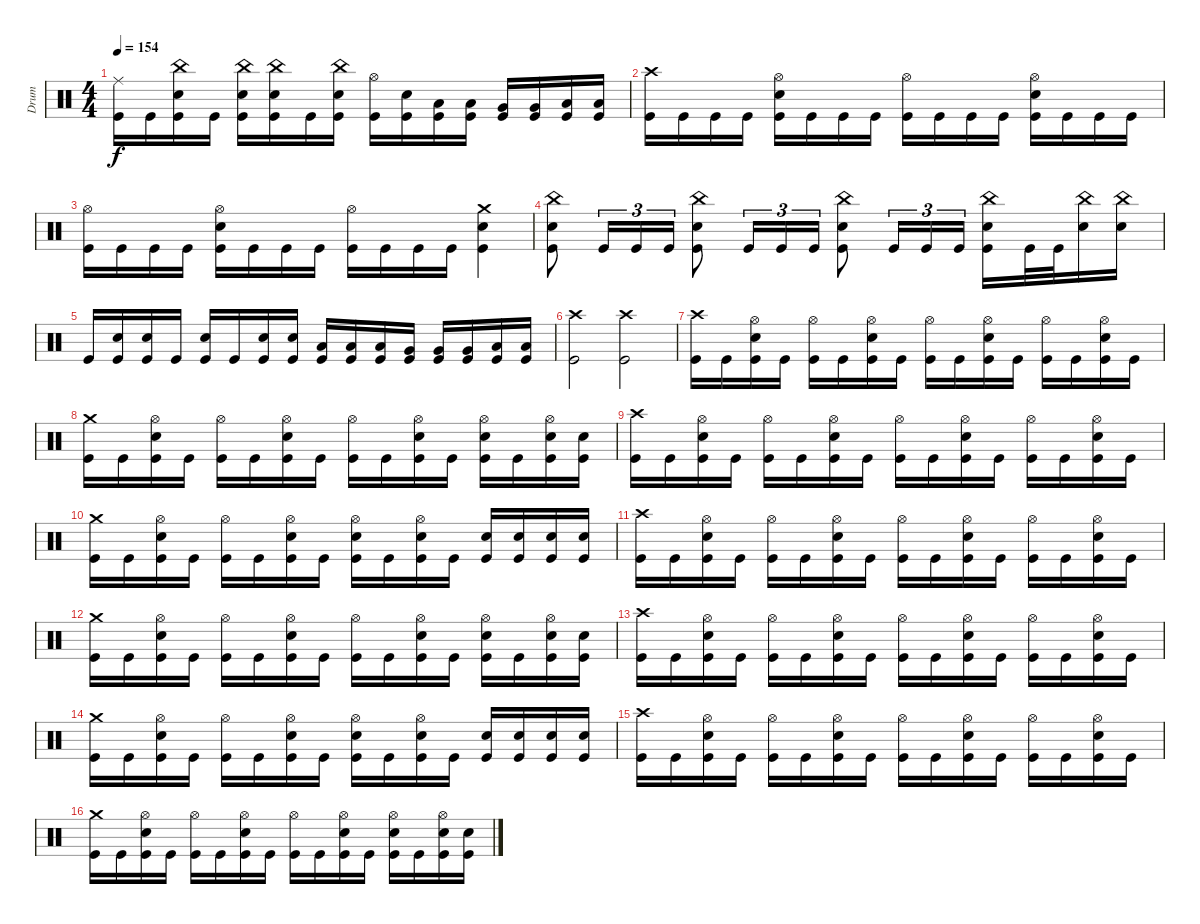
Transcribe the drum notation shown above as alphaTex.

\track ("Drum" "Drum") {instrument percussion}
\staff {score}
\articulation defaults
\ts (4 4)
\tempo 154
\clef neutral
\ks c
("Kick (hit)" "Ride (middle)").16{dy f} "Kick (hit)".16 ("Kick (hit)" "Electric Snare (hit)" "China (hit)").16 "Kick (hit)".16 ("Kick (hit)" "Electric Snare (hit)" "China (hit)").16 ("Kick (hit)" "Electric Snare (hit)" "China (hit)").16 "Kick (hit)".16 ("Kick (hit)" "Electric Snare (hit)" "China (hit)").16 ("Kick (hit)" "Hi-Hat (open)").16 ("Kick (hit)" "Electric Snare (hit)").16 ("Kick (hit)" "Low Tom (hit)").16 ("Kick (hit)" "Low Tom (hit)").16 ("Kick (hit)" "Very Low Tom (hit)").16 ("Kick (hit)" "Very Low Tom (hit)").16 ("Kick (hit)" "Low Floor Tom (hit)").16 ("Kick (hit)" "Low Floor Tom (hit)").16 |
("Kick (hit)" "Crash high (hit)").16 "Kick (hit)".16 "Kick (hit)".16 "Kick (hit)".16 ("Kick (hit)" "Electric Snare (hit)" "Hi-Hat (open)").16 "Kick (hit)".16 "Kick (hit)".16 "Kick (hit)".16 ("Kick (hit)" "Hi-Hat (open)").16 "Kick (hit)".16 "Kick (hit)".16 "Kick (hit)".16 ("Kick (hit)" "Electric Snare (hit)" "Hi-Hat (open)").16 "Kick (hit)".16 "Kick (hit)".16 "Kick (hit)".16 |
("Kick (hit)" "Hi-Hat (open)").16 "Kick (hit)".16 "Kick (hit)".16 "Kick (hit)".16 ("Kick (hit)" "Electric Snare (hit)" "Hi-Hat (open)").16 "Kick (hit)".16 "Kick (hit)".16 "Kick (hit)".16 ("Kick (hit)" "Hi-Hat (open)").16 "Kick (hit)".16 "Kick (hit)".16 "Kick (hit)".16 ("Kick (hit)" "Electric Snare (hit)" "Crash medium (hit)").4 |
("Kick (hit)" "Electric Snare (hit)" "China (hit)").8 "Kick (hit)".16{tu (3 2)} "Kick (hit)".16{tu (3 2)} "Kick (hit)".16{tu (3 2)} ("Kick (hit)" "Electric Snare (hit)" "China (hit)").8 "Kick (hit)".16{tu (3 2)} "Kick (hit)".16{tu (3 2)} "Kick (hit)".16{tu (3 2)} ("Kick (hit)" "Electric Snare (hit)" "China (hit)").8 "Kick (hit)".16{tu (3 2)} "Kick (hit)".16{tu (3 2)} "Kick (hit)".16{tu (3 2)} ("Kick (hit)" "Electric Snare (hit)" "China (hit)").16 "Kick (hit)".32 "Kick (hit)".32 ("Electric Snare (hit)" "China (hit)").16 ("Electric Snare (hit)" "China (hit)").16 |
"Kick (hit)".16 ("Kick (hit)" "Electric Snare (hit)").16 ("Kick (hit)" "Electric Snare (hit)").16 "Kick (hit)".16 ("Kick (hit)" "Electric Snare (hit)").16 "Kick (hit)".16 ("Kick (hit)" "Electric Snare (hit)").16 ("Kick (hit)" "Electric Snare (hit)").16 ("Kick (hit)" "Low Tom (hit)").16 ("Kick (hit)" "Low Tom (hit)").16 ("Kick (hit)" "Low Tom (hit)").16 ("Kick (hit)" "Very Low Tom (hit)").16 ("Kick (hit)" "Very Low Tom (hit)").16 ("Kick (hit)" "Very Low Tom (hit)").16 ("Kick (hit)" "Low Floor Tom (hit)").16 ("Kick (hit)" "Low Floor Tom (hit)").16 |
("Kick (hit)" "Crash high (hit)").2 ("Kick (hit)" "Crash high (hit)").2 |
("Kick (hit)" "Crash high (hit)").16 "Kick (hit)".16 ("Kick (hit)" "Electric Snare (hit)" "Hi-Hat (open)").16 "Kick (hit)".16 ("Kick (hit)" "Hi-Hat (open)").16 "Kick (hit)".16 ("Kick (hit)" "Electric Snare (hit)" "Hi-Hat (open)").16 "Kick (hit)".16 ("Kick (hit)" "Hi-Hat (open)").16 "Kick (hit)".16 ("Kick (hit)" "Electric Snare (hit)" "Hi-Hat (open)").16 "Kick (hit)".16 ("Kick (hit)" "Hi-Hat (open)").16 "Kick (hit)".16 ("Kick (hit)" "Electric Snare (hit)" "Hi-Hat (open)").16 "Kick (hit)".16 |
("Kick (hit)" "Crash medium (hit)").16 "Kick (hit)".16 ("Kick (hit)" "Electric Snare (hit)" "Hi-Hat (open)").16 "Kick (hit)".16 ("Kick (hit)" "Hi-Hat (open)").16 "Kick (hit)".16 ("Kick (hit)" "Electric Snare (hit)" "Hi-Hat (open)").16 "Kick (hit)".16 ("Kick (hit)" "Hi-Hat (open)").16 "Kick (hit)".16 ("Kick (hit)" "Electric Snare (hit)" "Hi-Hat (open)").16 "Kick (hit)".16 ("Kick (hit)" "Electric Snare (hit)" "Hi-Hat (open)").16 "Kick (hit)".16 ("Kick (hit)" "Electric Snare (hit)" "Hi-Hat (open)").16 ("Kick (hit)" "Electric Snare (hit)").16 |
("Kick (hit)" "Crash high (hit)").16 "Kick (hit)".16 ("Kick (hit)" "Electric Snare (hit)" "Hi-Hat (open)").16 "Kick (hit)".16 ("Kick (hit)" "Hi-Hat (open)").16 "Kick (hit)".16 ("Kick (hit)" "Electric Snare (hit)" "Hi-Hat (open)").16 "Kick (hit)".16 ("Kick (hit)" "Hi-Hat (open)").16 "Kick (hit)".16 ("Kick (hit)" "Electric Snare (hit)" "Hi-Hat (open)").16 "Kick (hit)".16 ("Kick (hit)" "Hi-Hat (open)").16 "Kick (hit)".16 ("Kick (hit)" "Electric Snare (hit)" "Hi-Hat (open)").16 "Kick (hit)".16 |
("Kick (hit)" "Crash medium (hit)").16 "Kick (hit)".16 ("Kick (hit)" "Electric Snare (hit)" "Hi-Hat (open)").16 "Kick (hit)".16 ("Kick (hit)" "Hi-Hat (open)").16 "Kick (hit)".16 ("Kick (hit)" "Electric Snare (hit)" "Hi-Hat (open)").16 "Kick (hit)".16 ("Kick (hit)" "Electric Snare (hit)" "Hi-Hat (open)").16 "Kick (hit)".16 ("Kick (hit)" "Electric Snare (hit)" "Hi-Hat (open)").16 "Kick (hit)".16 ("Kick (hit)" "Electric Snare (hit)").16 ("Kick (hit)" "Electric Snare (hit)").16 ("Kick (hit)" "Electric Snare (hit)").16 ("Kick (hit)" "Electric Snare (hit)").16 |
("Kick (hit)" "Crash high (hit)").16 "Kick (hit)".16 ("Kick (hit)" "Electric Snare (hit)" "Hi-Hat (open)").16 "Kick (hit)".16 ("Kick (hit)" "Hi-Hat (open)").16 "Kick (hit)".16 ("Kick (hit)" "Electric Snare (hit)" "Hi-Hat (open)").16 "Kick (hit)".16 ("Kick (hit)" "Hi-Hat (open)").16 "Kick (hit)".16 ("Kick (hit)" "Electric Snare (hit)" "Hi-Hat (open)").16 "Kick (hit)".16 ("Kick (hit)" "Hi-Hat (open)").16 "Kick (hit)".16 ("Kick (hit)" "Electric Snare (hit)" "Hi-Hat (open)").16 "Kick (hit)".16 |
("Kick (hit)" "Crash medium (hit)").16 "Kick (hit)".16 ("Kick (hit)" "Electric Snare (hit)" "Hi-Hat (open)").16 "Kick (hit)".16 ("Kick (hit)" "Hi-Hat (open)").16 "Kick (hit)".16 ("Kick (hit)" "Electric Snare (hit)" "Hi-Hat (open)").16 "Kick (hit)".16 ("Kick (hit)" "Hi-Hat (open)").16 "Kick (hit)".16 ("Kick (hit)" "Electric Snare (hit)" "Hi-Hat (open)").16 "Kick (hit)".16 ("Kick (hit)" "Electric Snare (hit)" "Hi-Hat (open)").16 "Kick (hit)".16 ("Kick (hit)" "Electric Snare (hit)" "Hi-Hat (open)").16 ("Kick (hit)" "Electric Snare (hit)").16 |
("Kick (hit)" "Crash high (hit)").16 "Kick (hit)".16 ("Kick (hit)" "Electric Snare (hit)" "Hi-Hat (open)").16 "Kick (hit)".16 ("Kick (hit)" "Hi-Hat (open)").16 "Kick (hit)".16 ("Kick (hit)" "Electric Snare (hit)" "Hi-Hat (open)").16 "Kick (hit)".16 ("Kick (hit)" "Hi-Hat (open)").16 "Kick (hit)".16 ("Kick (hit)" "Electric Snare (hit)" "Hi-Hat (open)").16 "Kick (hit)".16 ("Kick (hit)" "Hi-Hat (open)").16 "Kick (hit)".16 ("Kick (hit)" "Electric Snare (hit)" "Hi-Hat (open)").16 "Kick (hit)".16 |
("Kick (hit)" "Crash medium (hit)").16 "Kick (hit)".16 ("Kick (hit)" "Electric Snare (hit)" "Hi-Hat (open)").16 "Kick (hit)".16 ("Kick (hit)" "Hi-Hat (open)").16 "Kick (hit)".16 ("Kick (hit)" "Electric Snare (hit)" "Hi-Hat (open)").16 "Kick (hit)".16 ("Kick (hit)" "Electric Snare (hit)" "Hi-Hat (open)").16 "Kick (hit)".16 ("Kick (hit)" "Electric Snare (hit)" "Hi-Hat (open)").16 "Kick (hit)".16 ("Kick (hit)" "Electric Snare (hit)").16 ("Kick (hit)" "Electric Snare (hit)").16 ("Kick (hit)" "Electric Snare (hit)").16 ("Kick (hit)" "Electric Snare (hit)").16 |
("Kick (hit)" "Crash high (hit)").16 "Kick (hit)".16 ("Kick (hit)" "Electric Snare (hit)" "Hi-Hat (open)").16 "Kick (hit)".16 ("Kick (hit)" "Hi-Hat (open)").16 "Kick (hit)".16 ("Kick (hit)" "Electric Snare (hit)" "Hi-Hat (open)").16 "Kick (hit)".16 ("Kick (hit)" "Hi-Hat (open)").16 "Kick (hit)".16 ("Kick (hit)" "Electric Snare (hit)" "Hi-Hat (open)").16 "Kick (hit)".16 ("Kick (hit)" "Hi-Hat (open)").16 "Kick (hit)".16 ("Kick (hit)" "Electric Snare (hit)" "Hi-Hat (open)").16 "Kick (hit)".16 |
("Kick (hit)" "Crash medium (hit)").16 "Kick (hit)".16 ("Kick (hit)" "Electric Snare (hit)" "Hi-Hat (open)").16 "Kick (hit)".16 ("Kick (hit)" "Hi-Hat (open)").16 "Kick (hit)".16 ("Kick (hit)" "Electric Snare (hit)" "Hi-Hat (open)").16 "Kick (hit)".16 ("Kick (hit)" "Hi-Hat (open)").16 "Kick (hit)".16 ("Kick (hit)" "Electric Snare (hit)" "Hi-Hat (open)").16 "Kick (hit)".16 ("Kick (hit)" "Electric Snare (hit)" "Hi-Hat (open)").16 "Kick (hit)".16 ("Kick (hit)" "Electric Snare (hit)" "Hi-Hat (open)").16 ("Kick (hit)" "Electric Snare (hit)").16
